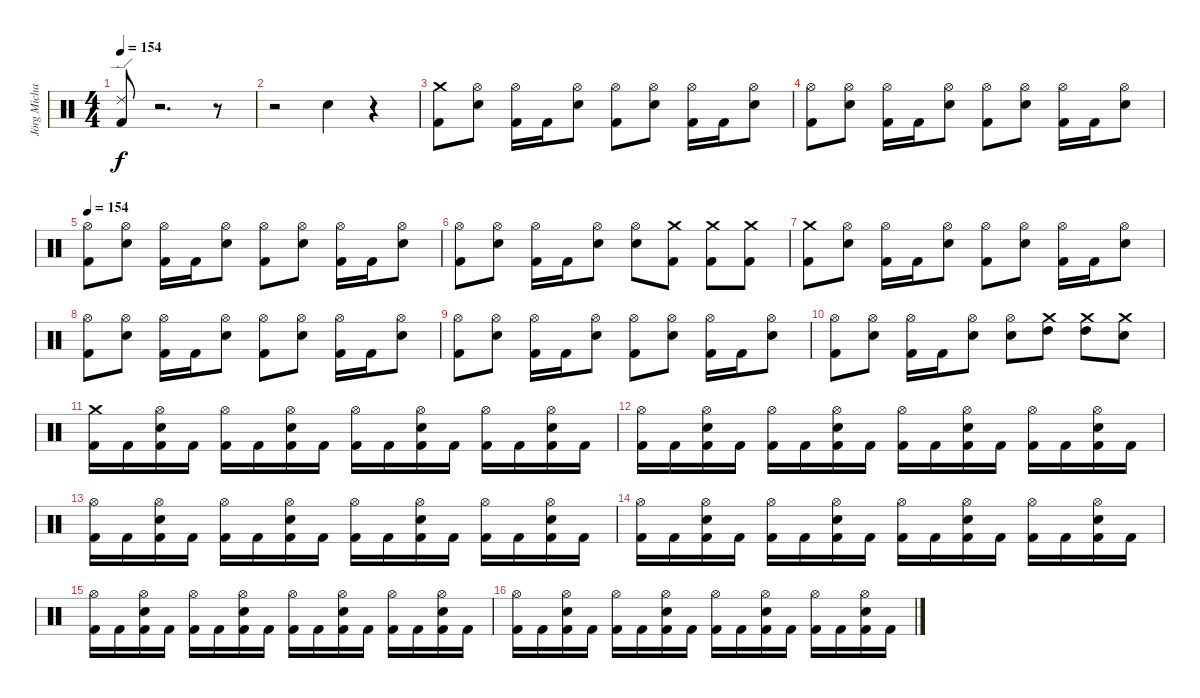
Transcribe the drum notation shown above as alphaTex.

\track ("Jörg Michael" "Jörg Micha") {instrument percussion}
\staff {score}
\articulation defaults
\ts (4 4)
\tempo 154
\clef neutral
\ks c
("Kick (hit) 2" "Ride (edge) 2").8{dy f} r.2{d} r.8 |
r.2 "Snare (hit) 2".4 r.4 |
("Kick (hit) 2" "Crash medium (hit)").8 ("Snare (hit) 2" "Hi-Hat (open)").8 ("Kick (hit) 2" "Hi-Hat (open)").16 "Kick (hit) 2".16 ("Snare (hit) 2" "Hi-Hat (open)").8 ("Kick (hit) 2" "Hi-Hat (open)").8 ("Snare (hit) 2" "Hi-Hat (open)").8 ("Kick (hit) 2" "Hi-Hat (open)").16 "Kick (hit) 2".16 ("Snare (hit) 2" "Hi-Hat (open)").8 |
("Hi-Hat (open)" "Kick (hit) 2").8 ("Snare (hit) 2" "Hi-Hat (open)").8 ("Kick (hit) 2" "Hi-Hat (open)").16 "Kick (hit) 2".16 ("Snare (hit) 2" "Hi-Hat (open)").8 ("Kick (hit) 2" "Hi-Hat (open)").8 ("Snare (hit) 2" "Hi-Hat (open)").8 ("Kick (hit) 2" "Hi-Hat (open)").16 "Kick (hit) 2".16 ("Snare (hit) 2" "Hi-Hat (open)").8 |
\tempo 154
("Hi-Hat (open)" "Kick (hit) 2").8 ("Snare (hit) 2" "Hi-Hat (open)").8 ("Kick (hit) 2" "Hi-Hat (open)").16 "Kick (hit) 2".16 ("Snare (hit) 2" "Hi-Hat (open)").8 ("Kick (hit) 2" "Hi-Hat (open)").8 ("Snare (hit) 2" "Hi-Hat (open)").8 ("Kick (hit) 2" "Hi-Hat (open)").16 "Kick (hit) 2".16 ("Snare (hit) 2" "Hi-Hat (open)").8 |
("Hi-Hat (open)" "Kick (hit) 2").8 ("Snare (hit) 2" "Hi-Hat (open)").8 ("Kick (hit) 2" "Hi-Hat (open)").16 "Kick (hit) 2".16 ("Snare (hit) 2" "Hi-Hat (open)").8 ("Snare (hit) 2" "Hi-Hat (open)").8 ("Kick (hit) 2" "Crash medium (hit)").8 ("Kick (hit) 2" "Crash medium (hit)").8 ("Kick (hit) 2" "Crash medium (hit)").8 |
("Kick (hit) 2" "Crash medium (hit)").8 ("Snare (hit) 2" "Hi-Hat (open)").8 ("Kick (hit) 2" "Hi-Hat (open)").16 "Kick (hit) 2".16 ("Snare (hit) 2" "Hi-Hat (open)").8 ("Kick (hit) 2" "Hi-Hat (open)").8 ("Snare (hit) 2" "Hi-Hat (open)").8 ("Kick (hit) 2" "Hi-Hat (open)").16 "Kick (hit) 2".16 ("Snare (hit) 2" "Hi-Hat (open)").8 |
("Hi-Hat (open)" "Kick (hit) 2").8 ("Snare (hit) 2" "Hi-Hat (open)").8 ("Kick (hit) 2" "Hi-Hat (open)").16 "Kick (hit) 2".16 ("Snare (hit) 2" "Hi-Hat (open)").8 ("Kick (hit) 2" "Hi-Hat (open)").8 ("Snare (hit) 2" "Hi-Hat (open)").8 ("Kick (hit) 2" "Hi-Hat (open)").16 "Kick (hit) 2".16 ("Snare (hit) 2" "Hi-Hat (open)").8 |
("Hi-Hat (open)" "Kick (hit) 2").8 ("Snare (hit) 2" "Hi-Hat (open)").8 ("Kick (hit) 2" "Hi-Hat (open)").16 "Kick (hit) 2".16 ("Snare (hit) 2" "Hi-Hat (open)").8 ("Kick (hit) 2" "Hi-Hat (open)").8 ("Snare (hit) 2" "Hi-Hat (open)").8 ("Kick (hit) 2" "Hi-Hat (open)").16 "Kick (hit) 2".16 ("Snare (hit) 2" "Hi-Hat (open)").8 |
("Hi-Hat (open)" "Kick (hit) 2").8 ("Snare (hit) 2" "Hi-Hat (open)").8 ("Kick (hit) 2" "Hi-Hat (open)").16 "Kick (hit) 2".16 ("Snare (hit) 2" "Hi-Hat (open)").8 ("Snare (hit) 2" "Hi-Hat (open)").8 ("High Tom (hit)" "Crash medium (hit)").8 ("High Tom (hit)" "Crash medium (hit)").8 ("Snare (hit) 2" "Crash medium (hit)").8 |
("Crash medium (hit)" "Kick (hit) 2").16 "Kick (hit) 2".16 ("Snare (hit) 2" "Hi-Hat (open)" "Kick (hit) 2").16 "Kick (hit) 2".16 ("Hi-Hat (open)" "Kick (hit) 2").16 "Kick (hit) 2".16 ("Snare (hit) 2" "Hi-Hat (open)" "Kick (hit) 2").16 "Kick (hit) 2".16 ("Hi-Hat (open)" "Kick (hit) 2").16 "Kick (hit) 2".16 ("Snare (hit) 2" "Hi-Hat (open)" "Kick (hit) 2").16 "Kick (hit) 2".16 ("Hi-Hat (open)" "Kick (hit) 2").16 "Kick (hit) 2".16 ("Snare (hit) 2" "Hi-Hat (open)" "Kick (hit) 2").16 "Kick (hit) 2".16 |
("Hi-Hat (open)" "Kick (hit) 2").16 "Kick (hit) 2".16 ("Snare (hit) 2" "Hi-Hat (open)" "Kick (hit) 2").16 "Kick (hit) 2".16 ("Hi-Hat (open)" "Kick (hit) 2").16 "Kick (hit) 2".16 ("Snare (hit) 2" "Hi-Hat (open)" "Kick (hit) 2").16 "Kick (hit) 2".16 ("Hi-Hat (open)" "Kick (hit) 2").16 "Kick (hit) 2".16 ("Snare (hit) 2" "Hi-Hat (open)" "Kick (hit) 2").16 "Kick (hit) 2".16 ("Hi-Hat (open)" "Kick (hit) 2").16 "Kick (hit) 2".16 ("Snare (hit) 2" "Hi-Hat (open)" "Kick (hit) 2").16 "Kick (hit) 2".16 |
("Hi-Hat (open)" "Kick (hit) 2").16 "Kick (hit) 2".16 ("Snare (hit) 2" "Hi-Hat (open)" "Kick (hit) 2").16 "Kick (hit) 2".16 ("Hi-Hat (open)" "Kick (hit) 2").16 "Kick (hit) 2".16 ("Snare (hit) 2" "Hi-Hat (open)" "Kick (hit) 2").16 "Kick (hit) 2".16 ("Hi-Hat (open)" "Kick (hit) 2").16 "Kick (hit) 2".16 ("Snare (hit) 2" "Hi-Hat (open)" "Kick (hit) 2").16 "Kick (hit) 2".16 ("Hi-Hat (open)" "Kick (hit) 2").16 "Kick (hit) 2".16 ("Snare (hit) 2" "Hi-Hat (open)" "Kick (hit) 2").16 "Kick (hit) 2".16 |
("Hi-Hat (open)" "Kick (hit) 2").16 "Kick (hit) 2".16 ("Snare (hit) 2" "Hi-Hat (open)" "Kick (hit) 2").16 "Kick (hit) 2".16 ("Hi-Hat (open)" "Kick (hit) 2").16 "Kick (hit) 2".16 ("Snare (hit) 2" "Hi-Hat (open)" "Kick (hit) 2").16 "Kick (hit) 2".16 ("Hi-Hat (open)" "Kick (hit) 2").16 "Kick (hit) 2".16 ("Snare (hit) 2" "Hi-Hat (open)" "Kick (hit) 2").16 "Kick (hit) 2".16 ("Hi-Hat (open)" "Kick (hit) 2").16 "Kick (hit) 2".16 ("Snare (hit) 2" "Hi-Hat (open)" "Kick (hit) 2").16 "Kick (hit) 2".16 |
("Hi-Hat (open)" "Kick (hit) 2").16 "Kick (hit) 2".16 ("Snare (hit) 2" "Hi-Hat (open)" "Kick (hit) 2").16 "Kick (hit) 2".16 ("Hi-Hat (open)" "Kick (hit) 2").16 "Kick (hit) 2".16 ("Snare (hit) 2" "Hi-Hat (open)" "Kick (hit) 2").16 "Kick (hit) 2".16 ("Hi-Hat (open)" "Kick (hit) 2").16 "Kick (hit) 2".16 ("Snare (hit) 2" "Hi-Hat (open)" "Kick (hit) 2").16 "Kick (hit) 2".16 ("Hi-Hat (open)" "Kick (hit) 2").16 "Kick (hit) 2".16 ("Snare (hit) 2" "Hi-Hat (open)" "Kick (hit) 2").16 "Kick (hit) 2".16 |
("Hi-Hat (open)" "Kick (hit) 2").16 "Kick (hit) 2".16 ("Snare (hit) 2" "Hi-Hat (open)" "Kick (hit) 2").16 "Kick (hit) 2".16 ("Hi-Hat (open)" "Kick (hit) 2").16 "Kick (hit) 2".16 ("Snare (hit) 2" "Hi-Hat (open)" "Kick (hit) 2").16 "Kick (hit) 2".16 ("Hi-Hat (open)" "Kick (hit) 2").16 "Kick (hit) 2".16 ("Snare (hit) 2" "Hi-Hat (open)" "Kick (hit) 2").16 "Kick (hit) 2".16 ("Hi-Hat (open)" "Kick (hit) 2").16 "Kick (hit) 2".16 ("Snare (hit) 2" "Hi-Hat (open)" "Kick (hit) 2").16 "Kick (hit) 2".16
